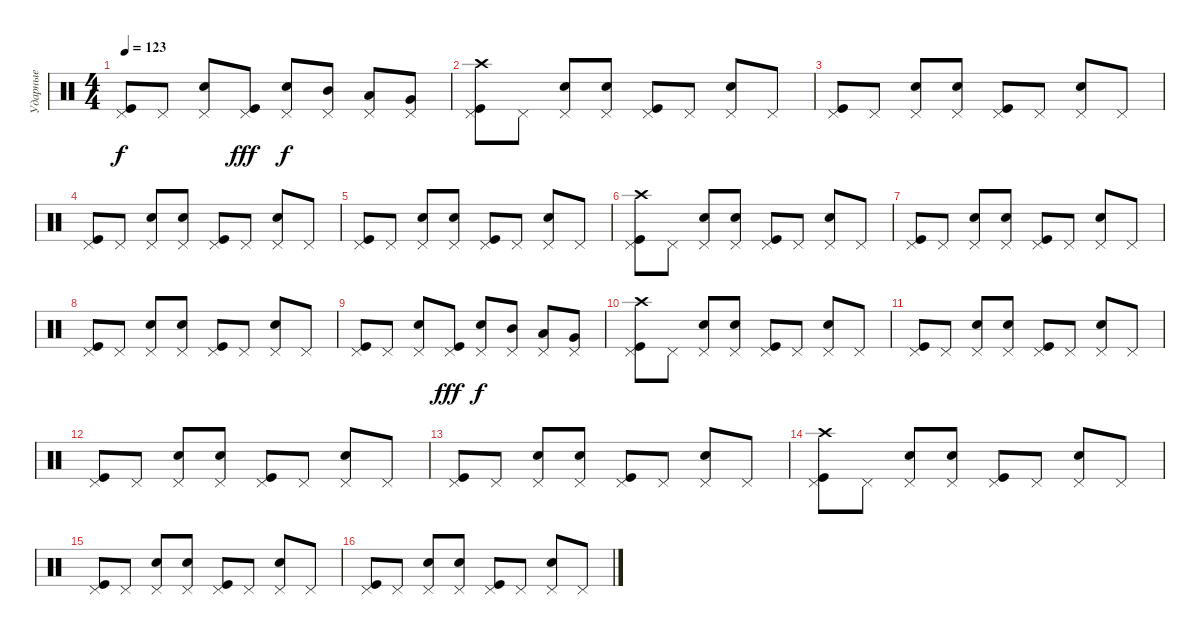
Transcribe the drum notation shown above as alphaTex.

\track ("Ударные" "Ударные") {instrument percussion}
\staff {score}
\articulation defaults
\ts (4 4)
\tempo 123
\clef neutral
\ks c
("Kick (hit)" "Pedal Hi-Hat (hit)").8{dy f} "Pedal Hi-Hat (hit)".8 ("Pedal Hi-Hat (hit)" "Snare (hit) 2").8 ("Kick (hit)" "Pedal Hi-Hat (hit)").8{dy fff} ("Pedal Hi-Hat (hit)" "Snare (hit) 2").8{dy f} ("Pedal Hi-Hat (hit)" "Mid Tom (hit)").8 ("Pedal Hi-Hat (hit)" "Low Tom (hit)").8 ("Pedal Hi-Hat (hit)" "Very Low Tom (hit)").8 |
("Kick (hit)" "Pedal Hi-Hat (hit)" "Crash high (hit)").8 "Pedal Hi-Hat (hit)".8 ("Pedal Hi-Hat (hit)" "Snare (hit) 2").8 ("Pedal Hi-Hat (hit)" "Snare (hit) 2").8 ("Kick (hit)" "Pedal Hi-Hat (hit)").8 "Pedal Hi-Hat (hit)".8 ("Pedal Hi-Hat (hit)" "Snare (hit) 2").8 "Pedal Hi-Hat (hit)".8 |
("Kick (hit)" "Pedal Hi-Hat (hit)").8 "Pedal Hi-Hat (hit)".8 ("Pedal Hi-Hat (hit)" "Snare (hit) 2").8 ("Pedal Hi-Hat (hit)" "Snare (hit) 2").8 ("Kick (hit)" "Pedal Hi-Hat (hit)").8 "Pedal Hi-Hat (hit)".8 ("Pedal Hi-Hat (hit)" "Snare (hit) 2").8 "Pedal Hi-Hat (hit)".8 |
("Kick (hit)" "Pedal Hi-Hat (hit)").8 "Pedal Hi-Hat (hit)".8 ("Pedal Hi-Hat (hit)" "Snare (hit) 2").8 ("Pedal Hi-Hat (hit)" "Snare (hit) 2").8 ("Kick (hit)" "Pedal Hi-Hat (hit)").8 "Pedal Hi-Hat (hit)".8 ("Pedal Hi-Hat (hit)" "Snare (hit) 2").8 "Pedal Hi-Hat (hit)".8 |
("Kick (hit)" "Pedal Hi-Hat (hit)").8 "Pedal Hi-Hat (hit)".8 ("Pedal Hi-Hat (hit)" "Snare (hit) 2").8 ("Pedal Hi-Hat (hit)" "Snare (hit) 2").8 ("Kick (hit)" "Pedal Hi-Hat (hit)").8 "Pedal Hi-Hat (hit)".8 ("Pedal Hi-Hat (hit)" "Snare (hit) 2").8 "Pedal Hi-Hat (hit)".8 |
("Kick (hit)" "Pedal Hi-Hat (hit)" "Crash high (hit)").8 "Pedal Hi-Hat (hit)".8 ("Pedal Hi-Hat (hit)" "Snare (hit) 2").8 ("Pedal Hi-Hat (hit)" "Snare (hit) 2").8 ("Kick (hit)" "Pedal Hi-Hat (hit)").8 "Pedal Hi-Hat (hit)".8 ("Pedal Hi-Hat (hit)" "Snare (hit) 2").8 "Pedal Hi-Hat (hit)".8 |
("Kick (hit)" "Pedal Hi-Hat (hit)").8 "Pedal Hi-Hat (hit)".8 ("Pedal Hi-Hat (hit)" "Snare (hit) 2").8 ("Pedal Hi-Hat (hit)" "Snare (hit) 2").8 ("Kick (hit)" "Pedal Hi-Hat (hit)").8 "Pedal Hi-Hat (hit)".8 ("Pedal Hi-Hat (hit)" "Snare (hit) 2").8 "Pedal Hi-Hat (hit)".8 |
("Kick (hit)" "Pedal Hi-Hat (hit)").8 "Pedal Hi-Hat (hit)".8 ("Pedal Hi-Hat (hit)" "Snare (hit) 2").8 ("Pedal Hi-Hat (hit)" "Snare (hit) 2").8 ("Kick (hit)" "Pedal Hi-Hat (hit)").8 "Pedal Hi-Hat (hit)".8 ("Pedal Hi-Hat (hit)" "Snare (hit) 2").8 "Pedal Hi-Hat (hit)".8 |
("Kick (hit)" "Pedal Hi-Hat (hit)").8 "Pedal Hi-Hat (hit)".8 ("Pedal Hi-Hat (hit)" "Snare (hit) 2").8 ("Kick (hit)" "Pedal Hi-Hat (hit)").8{dy fff} ("Pedal Hi-Hat (hit)" "Snare (hit) 2").8{dy f} ("Pedal Hi-Hat (hit)" "Mid Tom (hit)").8 ("Pedal Hi-Hat (hit)" "Low Tom (hit)").8 ("Pedal Hi-Hat (hit)" "Very Low Tom (hit)").8 |
("Kick (hit)" "Pedal Hi-Hat (hit)" "Crash high (hit)").8 "Pedal Hi-Hat (hit)".8 ("Pedal Hi-Hat (hit)" "Snare (hit) 2").8 ("Pedal Hi-Hat (hit)" "Snare (hit) 2").8 ("Kick (hit)" "Pedal Hi-Hat (hit)").8 "Pedal Hi-Hat (hit)".8 ("Pedal Hi-Hat (hit)" "Snare (hit) 2").8 "Pedal Hi-Hat (hit)".8 |
("Kick (hit)" "Pedal Hi-Hat (hit)").8 "Pedal Hi-Hat (hit)".8 ("Pedal Hi-Hat (hit)" "Snare (hit) 2").8 ("Pedal Hi-Hat (hit)" "Snare (hit) 2").8 ("Kick (hit)" "Pedal Hi-Hat (hit)").8 "Pedal Hi-Hat (hit)".8 ("Pedal Hi-Hat (hit)" "Snare (hit) 2").8 "Pedal Hi-Hat (hit)".8 |
("Kick (hit)" "Pedal Hi-Hat (hit)").8 "Pedal Hi-Hat (hit)".8 ("Pedal Hi-Hat (hit)" "Snare (hit) 2").8 ("Pedal Hi-Hat (hit)" "Snare (hit) 2").8 ("Kick (hit)" "Pedal Hi-Hat (hit)").8 "Pedal Hi-Hat (hit)".8 ("Pedal Hi-Hat (hit)" "Snare (hit) 2").8 "Pedal Hi-Hat (hit)".8 |
("Kick (hit)" "Pedal Hi-Hat (hit)").8 "Pedal Hi-Hat (hit)".8 ("Pedal Hi-Hat (hit)" "Snare (hit) 2").8 ("Pedal Hi-Hat (hit)" "Snare (hit) 2").8 ("Kick (hit)" "Pedal Hi-Hat (hit)").8 "Pedal Hi-Hat (hit)".8 ("Pedal Hi-Hat (hit)" "Snare (hit) 2").8 "Pedal Hi-Hat (hit)".8 |
("Kick (hit)" "Pedal Hi-Hat (hit)" "Crash high (hit)").8 "Pedal Hi-Hat (hit)".8 ("Pedal Hi-Hat (hit)" "Snare (hit) 2").8 ("Pedal Hi-Hat (hit)" "Snare (hit) 2").8 ("Kick (hit)" "Pedal Hi-Hat (hit)").8 "Pedal Hi-Hat (hit)".8 ("Pedal Hi-Hat (hit)" "Snare (hit) 2").8 "Pedal Hi-Hat (hit)".8 |
("Kick (hit)" "Pedal Hi-Hat (hit)").8 "Pedal Hi-Hat (hit)".8 ("Pedal Hi-Hat (hit)" "Snare (hit) 2").8 ("Pedal Hi-Hat (hit)" "Snare (hit) 2").8 ("Kick (hit)" "Pedal Hi-Hat (hit)").8 "Pedal Hi-Hat (hit)".8 ("Pedal Hi-Hat (hit)" "Snare (hit) 2").8 "Pedal Hi-Hat (hit)".8 |
("Kick (hit)" "Pedal Hi-Hat (hit)").8 "Pedal Hi-Hat (hit)".8 ("Pedal Hi-Hat (hit)" "Snare (hit) 2").8 ("Pedal Hi-Hat (hit)" "Snare (hit) 2").8 ("Kick (hit)" "Pedal Hi-Hat (hit)").8 "Pedal Hi-Hat (hit)".8 ("Pedal Hi-Hat (hit)" "Snare (hit) 2").8 "Pedal Hi-Hat (hit)".8
